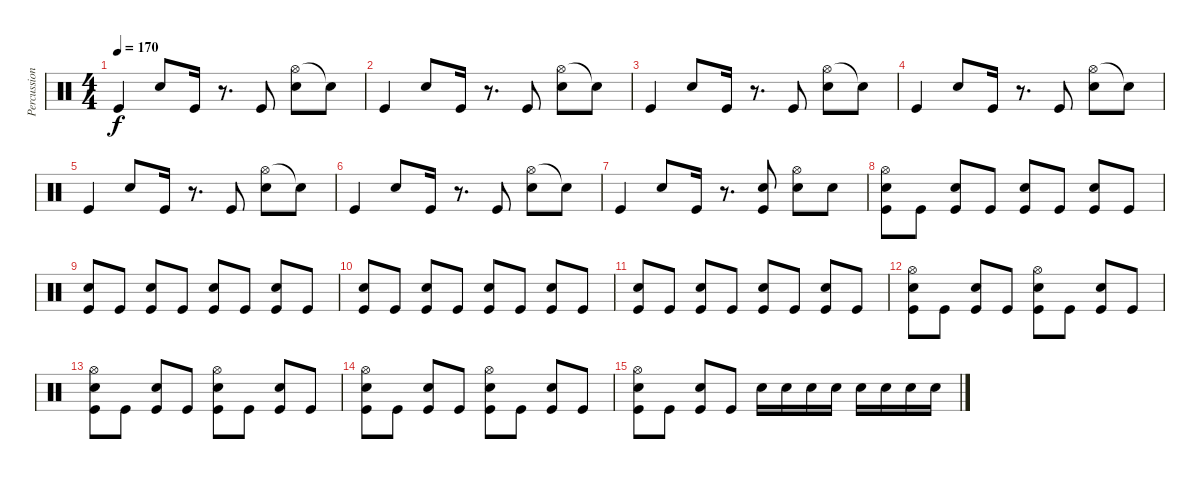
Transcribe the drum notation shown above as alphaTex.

\track ("Percussions" "Percussion") {instrument percussion}
\staff {score}
\articulation defaults
\ts (4 4)
\tempo 170
\clef neutral
\ks c "Kick (hit)".4{dy f} "Electric Snare (hit)".8 "Kick (hit)".16
r.8{d} "Kick (hit)".8 ("Hi-Hat (open)" "Electric Snare (hit)").8 "Snare (hit)"{t}.8 |
"Kick (hit)".4 "Electric Snare (hit)".8 "Kick (hit)".16 r.8{d} "Kick (hit)".8 ("Hi-Hat (open)" "Electric Snare (hit)").8 "Snare (hit)"{t}.8 |
"Kick (hit)".4 "Electric Snare (hit)".8 "Kick (hit)".16 r.8{d} "Kick (hit)".8 ("Hi-Hat (open)" "Electric Snare (hit)").8 "Snare (hit)"{t}.8 |
"Kick (hit)".4 "Electric Snare (hit)".8 "Kick (hit)".16 r.8{d} "Kick (hit)".8 ("Hi-Hat (open)" "Electric Snare (hit)").8 "Snare (hit)"{t}.8 |
"Kick (hit)".4 "Electric Snare (hit)".8 "Kick (hit)".16 r.8{d} "Kick (hit)".8 ("Hi-Hat (open)" "Electric Snare (hit)").8 "Snare (hit)"{t}.8 |
"Kick (hit)".4 "Electric Snare (hit)".8 "Kick (hit)".16 r.8{d} "Kick (hit)".8 ("Hi-Hat (open)" "Electric Snare (hit)").8 "Snare (hit)"{t}.8 |
"Kick (hit)".4 "Electric Snare (hit)".8 "Kick (hit)".16 r.8{d} ("Snare (hit) 2" "Kick (hit)").8 ("Hi-Hat (open)" "Snare (hit) 2").8 "Snare (hit) 2".8 |
("Hi-Hat (open)" "Electric Snare (hit)" "Kick (hit)").8 "Kick (hit)".8 ("Electric Snare (hit)" "Kick (hit)").8 "Kick (hit)".8 ("Electric Snare (hit)" "Kick (hit)").8 "Kick (hit)".8 ("Electric Snare (hit)" "Kick (hit)").8 "Kick (hit)".8 |
("Electric Snare (hit)" "Kick (hit)").8 "Kick (hit)".8 ("Electric Snare (hit)" "Kick (hit)").8 "Kick (hit)".8 ("Electric Snare (hit)" "Kick (hit)").8 "Kick (hit)".8 ("Electric Snare (hit)" "Kick (hit)").8 "Kick (hit)".8 |
("Electric Snare (hit)" "Kick (hit)").8 "Kick (hit)".8 ("Electric Snare (hit)" "Kick (hit)").8 "Kick (hit)".8 ("Electric Snare (hit)" "Kick (hit)").8 "Kick (hit)".8 ("Electric Snare (hit)" "Kick (hit)").8 "Kick (hit)".8 |
("Electric Snare (hit)" "Kick (hit)").8 "Kick (hit)".8 ("Electric Snare (hit)" "Kick (hit)").8 "Kick (hit)".8 ("Electric Snare (hit)" "Kick (hit)").8 "Kick (hit)".8 ("Electric Snare (hit)" "Kick (hit)").8 "Kick (hit)".8 |
("Hi-Hat (open)" "Electric Snare (hit)" "Kick (hit)").8 "Kick (hit)".8 ("Electric Snare (hit)" "Kick (hit)").8 "Kick (hit)".8 ("Hi-Hat (open)" "Electric Snare (hit)" "Kick (hit)").8 "Kick (hit)".8 ("Electric Snare (hit)" "Kick (hit)").8 "Kick (hit)".8 |
("Hi-Hat (open)" "Electric Snare (hit)" "Kick (hit)").8 "Kick (hit)".8 ("Electric Snare (hit)" "Kick (hit)").8 "Kick (hit)".8 ("Hi-Hat (open)" "Electric Snare (hit)" "Kick (hit)").8 "Kick (hit)".8 ("Electric Snare (hit)" "Kick (hit)").8 "Kick (hit)".8 |
("Hi-Hat (open)" "Electric Snare (hit)" "Kick (hit)").8 "Kick (hit)".8 ("Electric Snare (hit)" "Kick (hit)").8 "Kick (hit)".8 ("Hi-Hat (open)" "Electric Snare (hit)" "Kick (hit)").8 "Kick (hit)".8 ("Electric Snare (hit)" "Kick (hit)").8 "Kick (hit)".8 |
("Hi-Hat (open)" "Electric Snare (hit)" "Kick (hit)").8 "Kick (hit)".8 ("Electric Snare (hit)" "Kick (hit)").8 "Kick (hit)".8 "Snare (hit) 2".16 "Snare (hit) 2".16 "Snare (hit) 2".16 "Snare (hit) 2".16 "Electric Snare (hit)".16 "Electric Snare (hit)".16 "Electric Snare (hit)".16 "Electric Snare (hit)".16
